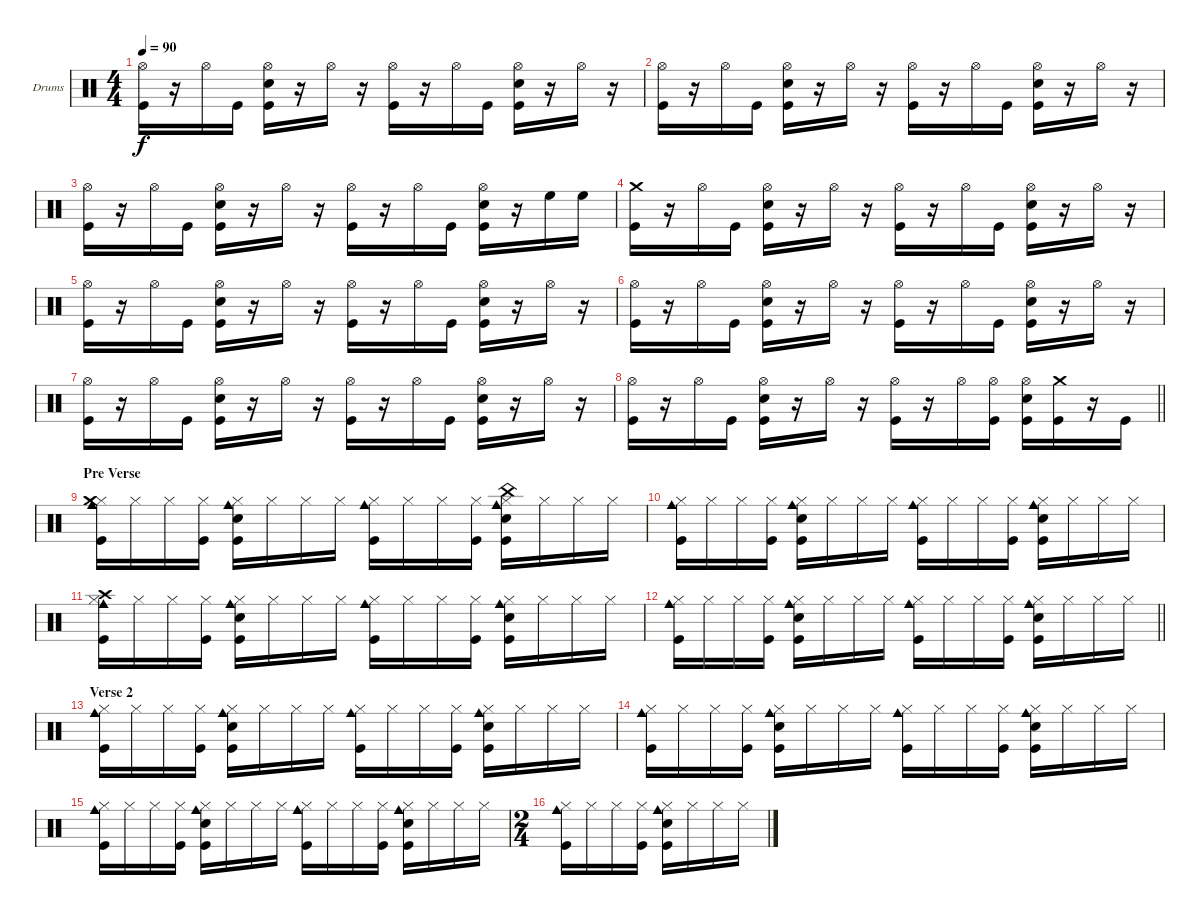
\bracketExtendMode groupsimilarinstruments
\firstSystemTrackNameOrientation horizontal
\otherSystemsTrackNameOrientation horizontal
\track ("Drums" "Drums") {multiBarRest instrument percussion}
\staff {score}
\articulation defaults
\ts (4 4)
\tempo 90
\clef neutral
\ks c
("Hi-Hat (open)" "Kick (hit)").16{dy f} r.16 "Hi-Hat (open)".16 "Kick (hit)".16 ("Hi-Hat (open)" "Snare (hit) 2" "Kick (hit)").16 r.16 "Hi-Hat (open)".16 r.16 ("Hi-Hat (open)" "Kick (hit)").16 r.16 "Hi-Hat (open)".16 "Kick (hit)".16 ("Hi-Hat (open)" "Snare (hit) 2" "Kick (hit)").16 r.16 "Hi-Hat (open)".16 r.16 |
("Hi-Hat (open)" "Kick (hit)").16 r.16 "Hi-Hat (open)".16 "Kick (hit)".16 ("Hi-Hat (open)" "Snare (hit) 2" "Kick (hit)").16 r.16 "Hi-Hat (open)".16 r.16 ("Hi-Hat (open)" "Kick (hit)").16 r.16 "Hi-Hat (open)".16 "Kick (hit)".16 ("Hi-Hat (open)" "Snare (hit) 2" "Kick (hit)").16 r.16 "Hi-Hat (open)".16 r.16 |
("Hi-Hat (open)" "Kick (hit)").16 r.16 "Hi-Hat (open)".16 "Kick (hit)".16 ("Hi-Hat (open)" "Snare (hit) 2" "Kick (hit)").16 r.16 "Hi-Hat (open)".16 r.16 ("Hi-Hat (open)" "Kick (hit)").16 r.16 "Hi-Hat (open)".16 "Kick (hit)".16 ("Hi-Hat (open)" "Snare (hit) 2" "Kick (hit)").16 r.16 "High Floor Tom (hit)".16 "High Floor Tom (hit)".16 |
("Crash medium (hit)" "Kick (hit)").16 r.16 "Hi-Hat (open)".16 "Kick (hit)".16 ("Hi-Hat (open)" "Snare (hit) 2" "Kick (hit)").16 r.16 "Hi-Hat (open)".16 r.16 ("Hi-Hat (open)" "Kick (hit)").16 r.16 "Hi-Hat (open)".16 "Kick (hit)".16 ("Hi-Hat (open)" "Snare (hit) 2" "Kick (hit)").16 r.16 "Hi-Hat (open)".16 r.16 |
("Hi-Hat (open)" "Kick (hit)").16 r.16 "Hi-Hat (open)".16 "Kick (hit)".16 ("Hi-Hat (open)" "Snare (hit) 2" "Kick (hit)").16 r.16 "Hi-Hat (open)".16 r.16 ("Hi-Hat (open)" "Kick (hit)").16 r.16 "Hi-Hat (open)".16 "Kick (hit)".16 ("Hi-Hat (open)" "Snare (hit) 2" "Kick (hit)").16 r.16 "Hi-Hat (open)".16 r.16 |
("Hi-Hat (open)" "Kick (hit)").16 r.16 "Hi-Hat (open)".16 "Kick (hit)".16 ("Hi-Hat (open)" "Snare (hit) 2" "Kick (hit)").16 r.16 "Hi-Hat (open)".16 r.16 ("Hi-Hat (open)" "Kick (hit)").16 r.16 "Hi-Hat (open)".16 "Kick (hit)".16 ("Hi-Hat (open)" "Snare (hit) 2" "Kick (hit)").16 r.16 "Hi-Hat (open)".16 r.16 |
("Hi-Hat (open)" "Kick (hit)").16 r.16 "Hi-Hat (open)".16 "Kick (hit)".16 ("Hi-Hat (open)" "Snare (hit) 2" "Kick (hit)").16 r.16 "Hi-Hat (open)".16 r.16 ("Hi-Hat (open)" "Kick (hit)").16 r.16 "Hi-Hat (open)".16 "Kick (hit)".16 ("Hi-Hat (open)" "Snare (hit) 2" "Kick (hit)").16 r.16 "Hi-Hat (open)".16 r.16 |
\barLineRight lightlight
("Hi-Hat (open)" "Kick (hit)").16 r.16 "Hi-Hat (open)".16 "Kick (hit)".16 ("Hi-Hat (open)" "Snare (hit) 2" "Kick (hit)").16 r.16 "Hi-Hat (open)".16 r.16 ("Hi-Hat (open)" "Kick (hit)").16 r.16 "Hi-Hat (open)".16 ("Hi-Hat (open)" "Kick (hit)").16 ("Hi-Hat (open)" "Snare (hit) 2" "Kick (hit)").16 ("Crash medium (hit)" "Kick (hit)").16 r.16 "Kick (hit)".16 |
\section ("" "Pre Verse")
("Hi-Hat (closed)" "Crash medium (hit)" "Kick (hit)" "Cowbell medium (hit)").16 "Hi-Hat (closed)".16 "Hi-Hat (closed)".16 ("Hi-Hat (closed)" "Kick (hit)").16 ("Hi-Hat (closed)" "Snare (hit) 2" "Kick (hit)" "Cowbell medium (hit)").16 "Hi-Hat (closed)".16 "Hi-Hat (closed)".16 "Hi-Hat (closed)".16 ("Hi-Hat (closed)" "Kick (hit)" "Cowbell medium (hit)").16 "Hi-Hat (closed)".16 "Hi-Hat (closed)".16 ("Hi-Hat (closed)" "Kick (hit)").16 ("Hi-Hat (closed)" "Snare (hit) 2" "Kick (hit)" "China (hit)" "Cowbell medium (hit)").16 "Hi-Hat (closed)".16 "Hi-Hat (closed)".16 "Hi-Hat (closed)".16 |
("Hi-Hat (closed)" "Kick (hit)" "Cowbell medium (hit)").16 "Hi-Hat (closed)".16 "Hi-Hat (closed)".16 ("Hi-Hat (closed)" "Kick (hit)").16 ("Hi-Hat (closed)" "Snare (hit) 2" "Kick (hit)" "Cowbell medium (hit)").16 "Hi-Hat (closed)".16 "Hi-Hat (closed)".16 "Hi-Hat (closed)".16 ("Hi-Hat (closed)" "Kick (hit)" "Cowbell medium (hit)").16 "Hi-Hat (closed)".16 "Hi-Hat (closed)".16 ("Hi-Hat (closed)" "Kick (hit)").16 ("Hi-Hat (closed)" "Snare (hit) 2" "Kick (hit)" "Cowbell medium (hit)").16 "Hi-Hat (closed)".16 "Hi-Hat (closed)".16 "Hi-Hat (closed)".16 |
("Hi-Hat (closed)" "Crash high (hit)" "Kick (hit)" "Cowbell medium (hit)").16 "Hi-Hat (closed)".16 "Hi-Hat (closed)".16 ("Hi-Hat (closed)" "Kick (hit)").16 ("Hi-Hat (closed)" "Snare (hit) 2" "Kick (hit)" "Cowbell medium (hit)").16 "Hi-Hat (closed)".16 "Hi-Hat (closed)".16 "Hi-Hat (closed)".16 ("Hi-Hat (closed)" "Kick (hit)" "Cowbell medium (hit)").16 "Hi-Hat (closed)".16 "Hi-Hat (closed)".16 ("Hi-Hat (closed)" "Kick (hit)").16 ("Hi-Hat (closed)" "Snare (hit) 2" "Kick (hit)" "Cowbell medium (hit)").16 "Hi-Hat (closed)".16 "Hi-Hat (closed)".16 "Hi-Hat (closed)".16 |
\barLineRight lightlight
("Hi-Hat (closed)" "Kick (hit)" "Cowbell medium (hit)").16 "Hi-Hat (closed)".16 "Hi-Hat (closed)".16 ("Hi-Hat (closed)" "Kick (hit)").16 ("Hi-Hat (closed)" "Snare (hit) 2" "Kick (hit)" "Cowbell medium (hit)").16 "Hi-Hat (closed)".16 "Hi-Hat (closed)".16 "Hi-Hat (closed)".16 ("Hi-Hat (closed)" "Kick (hit)" "Cowbell medium (hit)").16 "Hi-Hat (closed)".16 "Hi-Hat (closed)".16 ("Hi-Hat (closed)" "Kick (hit)").16 ("Hi-Hat (closed)" "Snare (hit) 2" "Kick (hit)" "Cowbell medium (hit)").16 "Hi-Hat (closed)".16 "Hi-Hat (closed)".16 "Hi-Hat (closed)".16 |
\section ("" "Verse 2")
("Hi-Hat (closed)" "Kick (hit)" "Cowbell medium (hit)").16 "Hi-Hat (closed)".16 "Hi-Hat (closed)".16 ("Hi-Hat (closed)" "Kick (hit)").16 ("Hi-Hat (closed)" "Snare (hit) 2" "Kick (hit)" "Cowbell medium (hit)").16 "Hi-Hat (closed)".16 "Hi-Hat (closed)".16 "Hi-Hat (closed)".16 ("Hi-Hat (closed)" "Kick (hit)" "Cowbell medium (hit)").16 "Hi-Hat (closed)".16 "Hi-Hat (closed)".16 ("Hi-Hat (closed)" "Kick (hit)").16 ("Hi-Hat (closed)" "Snare (hit) 2" "Kick (hit)" "Cowbell medium (hit)").16 "Hi-Hat (closed)".16 "Hi-Hat (closed)".16 "Hi-Hat (closed)".16 |
("Hi-Hat (closed)" "Kick (hit)" "Cowbell medium (hit)").16 "Hi-Hat (closed)".16 "Hi-Hat (closed)".16 ("Hi-Hat (closed)" "Kick (hit)").16 ("Hi-Hat (closed)" "Snare (hit) 2" "Kick (hit)" "Cowbell medium (hit)").16 "Hi-Hat (closed)".16 "Hi-Hat (closed)".16 "Hi-Hat (closed)".16 ("Hi-Hat (closed)" "Kick (hit)" "Cowbell medium (hit)").16 "Hi-Hat (closed)".16 "Hi-Hat (closed)".16 ("Hi-Hat (closed)" "Kick (hit)").16 ("Hi-Hat (closed)" "Snare (hit) 2" "Kick (hit)" "Cowbell medium (hit)").16 "Hi-Hat (closed)".16 "Hi-Hat (closed)".16 "Hi-Hat (closed)".16 |
("Hi-Hat (closed)" "Kick (hit)" "Cowbell medium (hit)").16 "Hi-Hat (closed)".16 "Hi-Hat (closed)".16 ("Hi-Hat (closed)" "Kick (hit)").16 ("Hi-Hat (closed)" "Snare (hit) 2" "Kick (hit)" "Cowbell medium (hit)").16 "Hi-Hat (closed)".16 "Hi-Hat (closed)".16 "Hi-Hat (closed)".16 ("Hi-Hat (closed)" "Kick (hit)" "Cowbell medium (hit)").16 "Hi-Hat (closed)".16 "Hi-Hat (closed)".16 ("Hi-Hat (closed)" "Kick (hit)").16 ("Hi-Hat (closed)" "Snare (hit) 2" "Kick (hit)" "Cowbell medium (hit)").16 "Hi-Hat (closed)".16 "Hi-Hat (closed)".16 "Hi-Hat (closed)".16 |
\ts (2 4)
\beaming (8 2 2)
("Hi-Hat (closed)" "Kick (hit)" "Cowbell medium (hit)").16 "Hi-Hat (closed)".16 "Hi-Hat (closed)".16 ("Hi-Hat (closed)" "Kick (hit)").16 ("Hi-Hat (closed)" "Snare (hit) 2" "Kick (hit)" "Cowbell medium (hit)").16 "Hi-Hat (closed)".16 "Hi-Hat (closed)".16 "Hi-Hat (closed)".16
